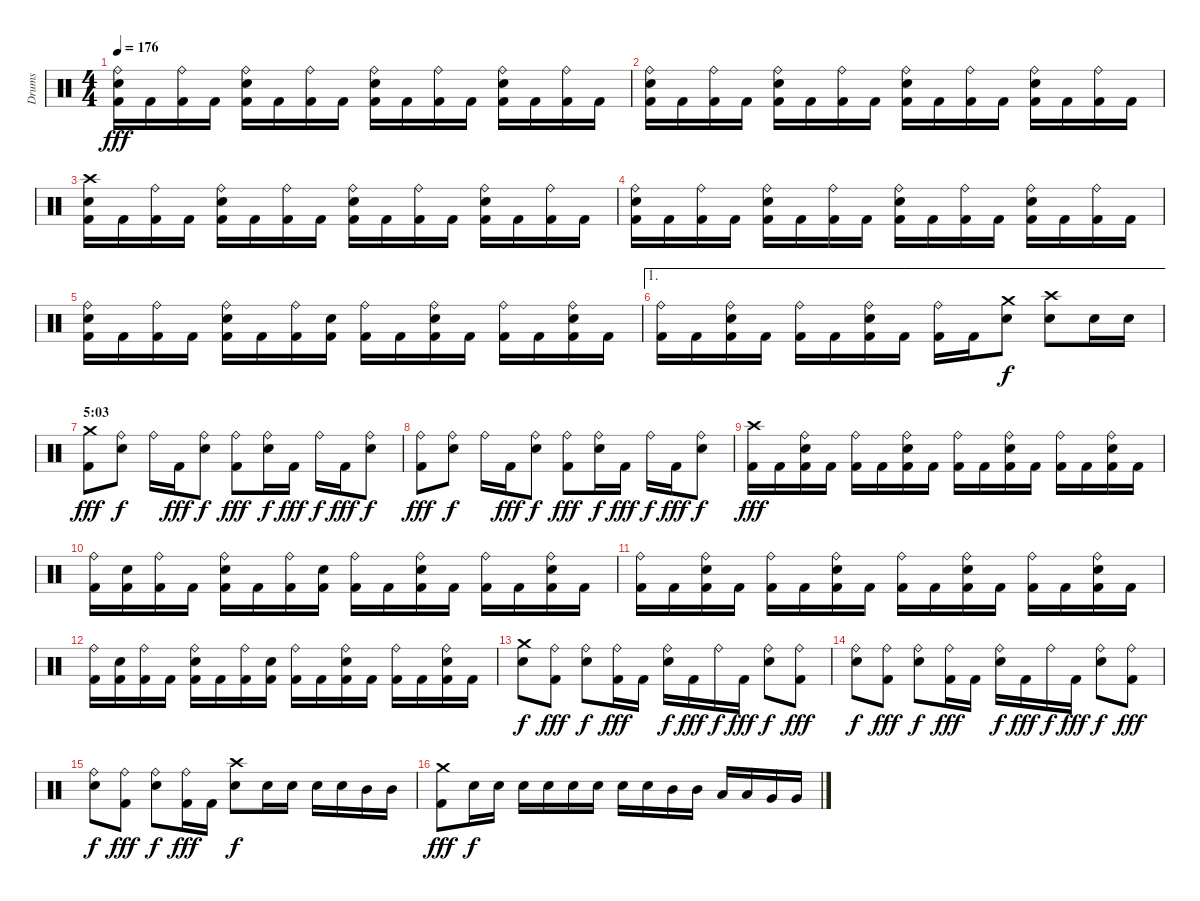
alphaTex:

\track ("Drums" "Drums") {instrument percussion}
\staff {score}
\articulation defaults
\ts (4 4)
\tempo 176
\clef neutral
\ks c
("Ride (bell)" "Snare (hit) 2" "Kick (hit) 2").16{dy fff} "Kick (hit) 2".16 ("Ride (bell)" "Kick (hit) 2").16 "Kick (hit) 2".16 ("Ride (bell)" "Snare (hit) 2" "Kick (hit) 2").16 "Kick (hit) 2".16 ("Ride (bell)" "Kick (hit) 2").16 "Kick (hit) 2".16 ("Ride (bell)" "Snare (hit) 2" "Kick (hit) 2").16 "Kick (hit) 2".16 ("Ride (bell)" "Kick (hit) 2").16 "Kick (hit) 2".16 ("Ride (bell)" "Snare (hit) 2" "Kick (hit) 2").16 "Kick (hit) 2".16 ("Ride (bell)" "Kick (hit) 2").16 "Kick (hit) 2".16 |
("Ride (bell)" "Snare (hit) 2" "Kick (hit) 2").16 "Kick (hit) 2".16 ("Ride (bell)" "Kick (hit) 2").16 "Kick (hit) 2".16 ("Ride (bell)" "Snare (hit) 2" "Kick (hit) 2").16 "Kick (hit) 2".16 ("Ride (bell)" "Kick (hit) 2").16 "Kick (hit) 2".16 ("Ride (bell)" "Snare (hit) 2" "Kick (hit) 2").16 "Kick (hit) 2".16 ("Ride (bell)" "Kick (hit) 2").16 "Kick (hit) 2".16 ("Ride (bell)" "Snare (hit) 2" "Kick (hit) 2").16 "Kick (hit) 2".16 ("Ride (bell)" "Kick (hit) 2").16 "Kick (hit) 2".16 |
("Crash high (hit)" "Snare (hit) 2" "Kick (hit) 2").16 "Kick (hit) 2".16 ("Ride (bell)" "Kick (hit) 2").16 "Kick (hit) 2".16 ("Ride (bell)" "Snare (hit) 2" "Kick (hit) 2").16 "Kick (hit) 2".16 ("Ride (bell)" "Kick (hit) 2").16 "Kick (hit) 2".16 ("Ride (bell)" "Snare (hit) 2" "Kick (hit) 2").16 "Kick (hit) 2".16 ("Ride (bell)" "Kick (hit) 2").16 "Kick (hit) 2".16 ("Ride (bell)" "Snare (hit) 2" "Kick (hit) 2").16 "Kick (hit) 2".16 ("Ride (bell)" "Kick (hit) 2").16 "Kick (hit) 2".16 |
("Ride (bell)" "Snare (hit) 2" "Kick (hit) 2").16 "Kick (hit) 2".16 ("Ride (bell)" "Kick (hit) 2").16 "Kick (hit) 2".16 ("Ride (bell)" "Snare (hit) 2" "Kick (hit) 2").16 "Kick (hit) 2".16 ("Ride (bell)" "Kick (hit) 2").16 "Kick (hit) 2".16 ("Ride (bell)" "Snare (hit) 2" "Kick (hit) 2").16 "Kick (hit) 2".16 ("Ride (bell)" "Kick (hit) 2").16 "Kick (hit) 2".16 ("Ride (bell)" "Snare (hit) 2" "Kick (hit) 2").16 "Kick (hit) 2".16 ("Ride (bell)" "Kick (hit) 2").16 "Kick (hit) 2".16 |
("Ride (bell)" "Snare (hit) 2" "Kick (hit) 2").16 "Kick (hit) 2".16 ("Ride (bell)" "Kick (hit) 2").16 "Kick (hit) 2".16 ("Ride (bell)" "Snare (hit) 2" "Kick (hit) 2").16 "Kick (hit) 2".16 ("Ride (bell)" "Kick (hit) 2").16 ("Snare (hit) 2" "Kick (hit) 2").16 ("Ride (bell)" "Kick (hit) 2").16 "Kick (hit) 2".16 ("Ride (bell)" "Snare (hit) 2" "Kick (hit) 2").16 "Kick (hit) 2".16 ("Ride (bell)" "Kick (hit) 2").16 "Kick (hit) 2".16 ("Ride (bell)" "Snare (hit) 2" "Kick (hit) 2").16 "Kick (hit) 2".16 |
\ae 1
("Ride (bell)" "Kick (hit) 2").16 "Kick (hit) 2".16 ("Ride (bell)" "Snare (hit) 2" "Kick (hit) 2").16 "Kick (hit) 2".16 ("Ride (bell)" "Kick (hit) 2").16 "Kick (hit) 2".16 ("Ride (bell)" "Snare (hit) 2" "Kick (hit) 2").16 "Kick (hit) 2".16 ("Ride (bell)" "Kick (hit) 2").16 "Kick (hit) 2".16 ("Crash medium (hit)" "Snare (hit) 2").8{dy f} ("Crash high (hit)" "Snare (hit) 2").8 "Snare (hit) 2".16 "Snare (hit) 2".16 |
\section ("" "5:03")
("Crash medium (hit)" "Kick (hit) 2").8{dy fff} ("Ride (bell)" "Snare (hit) 2").8{dy f} "Ride (bell)".16 "Kick (hit) 2".16{dy fff} ("Ride (bell)" "Snare (hit) 2").8{dy f} ("Ride (bell)" "Kick (hit) 2").8{dy fff} ("Ride (bell)" "Snare (hit) 2").16{dy f} "Kick (hit) 2".16{dy fff} "Ride (bell)".16{dy f} "Kick (hit) 2".16{dy fff} ("Ride (bell)" "Snare (hit) 2").8{dy f} |
("Ride (bell)" "Kick (hit) 2").8{dy fff} ("Ride (bell)" "Snare (hit) 2").8{dy f} "Ride (bell)".16 "Kick (hit) 2".16{dy fff} ("Ride (bell)" "Snare (hit) 2").8{dy f} ("Ride (bell)" "Kick (hit) 2").8{dy fff} ("Ride (bell)" "Snare (hit) 2").16{dy f} "Kick (hit) 2".16{dy fff} "Ride (bell)".16{dy f} "Kick (hit) 2".16{dy fff} ("Ride (bell)" "Snare (hit) 2").8{dy f} |
("Crash high (hit)" "Kick (hit) 2").16{dy fff} "Kick (hit) 2".16 ("Ride (bell)" "Snare (hit) 2" "Kick (hit) 2").16 "Kick (hit) 2".16 ("Ride (bell)" "Kick (hit) 2").16 "Kick (hit) 2".16 ("Ride (bell)" "Snare (hit) 2" "Kick (hit) 2").16 "Kick (hit) 2".16 ("Ride (bell)" "Kick (hit) 2").16 "Kick (hit) 2".16 ("Ride (bell)" "Snare (hit) 2" "Kick (hit) 2").16 "Kick (hit) 2".16 ("Ride (bell)" "Kick (hit) 2").16 "Kick (hit) 2".16 ("Ride (bell)" "Snare (hit) 2" "Kick (hit) 2").16 "Kick (hit) 2".16 |
("Ride (bell)" "Kick (hit) 2").16 ("Snare (hit) 2" "Kick (hit) 2").16 ("Ride (bell)" "Kick (hit) 2").16 "Kick (hit) 2".16 ("Ride (bell)" "Snare (hit) 2" "Kick (hit) 2").16 "Kick (hit) 2".16 ("Ride (bell)" "Kick (hit) 2").16 ("Snare (hit) 2" "Kick (hit) 2").16 ("Ride (bell)" "Kick (hit) 2").16 "Kick (hit) 2".16 ("Ride (bell)" "Snare (hit) 2" "Kick (hit) 2").16 "Kick (hit) 2".16 ("Ride (bell)" "Kick (hit) 2").16 "Kick (hit) 2".16 ("Ride (bell)" "Snare (hit) 2" "Kick (hit) 2").16 "Kick (hit) 2".16 |
("Ride (bell)" "Kick (hit) 2").16 "Kick (hit) 2".16 ("Ride (bell)" "Snare (hit) 2" "Kick (hit) 2").16 "Kick (hit) 2".16 ("Ride (bell)" "Kick (hit) 2").16 "Kick (hit) 2".16 ("Ride (bell)" "Snare (hit) 2" "Kick (hit) 2").16 "Kick (hit) 2".16 ("Ride (bell)" "Kick (hit) 2").16 "Kick (hit) 2".16 ("Ride (bell)" "Snare (hit) 2" "Kick (hit) 2").16 "Kick (hit) 2".16 ("Ride (bell)" "Kick (hit) 2").16 "Kick (hit) 2".16 ("Ride (bell)" "Snare (hit) 2" "Kick (hit) 2").16 "Kick (hit) 2".16 |
("Ride (bell)" "Kick (hit) 2").16 ("Snare (hit) 2" "Kick (hit) 2").16 ("Ride (bell)" "Kick (hit) 2").16 "Kick (hit) 2".16 ("Ride (bell)" "Snare (hit) 2" "Kick (hit) 2").16 "Kick (hit) 2".16 ("Ride (bell)" "Kick (hit) 2").16 ("Snare (hit) 2" "Kick (hit) 2").16 ("Ride (bell)" "Kick (hit) 2").16 "Kick (hit) 2".16 ("Ride (bell)" "Snare (hit) 2" "Kick (hit) 2").16 "Kick (hit) 2".16 ("Ride (bell)" "Kick (hit) 2").16 "Kick (hit) 2".16 ("Ride (bell)" "Snare (hit) 2" "Kick (hit) 2").16 "Kick (hit) 2".16 |
("Crash medium (hit)" "Snare (hit) 2").8{dy f} ("Ride (bell)" "Kick (hit) 2").8{dy fff} ("Ride (bell)" "Snare (hit) 2").8{dy f} ("Ride (bell)" "Kick (hit) 2").16{dy fff} "Kick (hit) 2".16 ("Ride (bell)" "Snare (hit) 2").16{dy f} "Kick (hit) 2".16{dy fff} "Ride (bell)".16{dy f} "Kick (hit) 2".16{dy fff} ("Ride (bell)" "Snare (hit) 2").8{dy f} ("Ride (bell)" "Kick (hit) 2").8{dy fff} |
("Ride (bell)" "Snare (hit) 2").8{dy f} ("Ride (bell)" "Kick (hit) 2").8{dy fff} ("Ride (bell)" "Snare (hit) 2").8{dy f} ("Ride (bell)" "Kick (hit) 2").16{dy fff} "Kick (hit) 2".16 ("Ride (bell)" "Snare (hit) 2").16{dy f} "Kick (hit) 2".16{dy fff} "Ride (bell)".16{dy f} "Kick (hit) 2".16{dy fff} ("Ride (bell)" "Snare (hit) 2").8{dy f} ("Ride (bell)" "Kick (hit) 2").8{dy fff} |
("Ride (bell)" "Snare (hit) 2").8{dy f} ("Ride (bell)" "Kick (hit) 2").8{dy fff} ("Ride (bell)" "Snare (hit) 2").8{dy f} ("Ride (bell)" "Kick (hit) 2").16{dy fff} "Kick (hit) 2".16 ("Crash high (hit)" "Snare (hit) 2").8{dy f} "Snare (hit) 2".16 "Snare (hit) 2".16 "Snare (hit) 2".16 "Snare (hit) 2".16 "Mid Tom (hit)".16 "Mid Tom (hit)".16 |
("Crash medium (hit)" "Kick (hit) 2").8{dy fff} "Snare (hit) 2".16{dy f} "Snare (hit) 2".16 "Snare (hit) 2".16 "Snare (hit) 2".16 "Snare (hit) 2".16 "Snare (hit) 2".16 "Snare (hit) 2".16 "Snare (hit) 2".16 "Mid Tom (hit)".16 "Mid Tom (hit)".16 "Low Tom (hit)".16 "Low Tom (hit)".16 "Very Low Tom (hit)".16 "Very Low Tom (hit)".16
